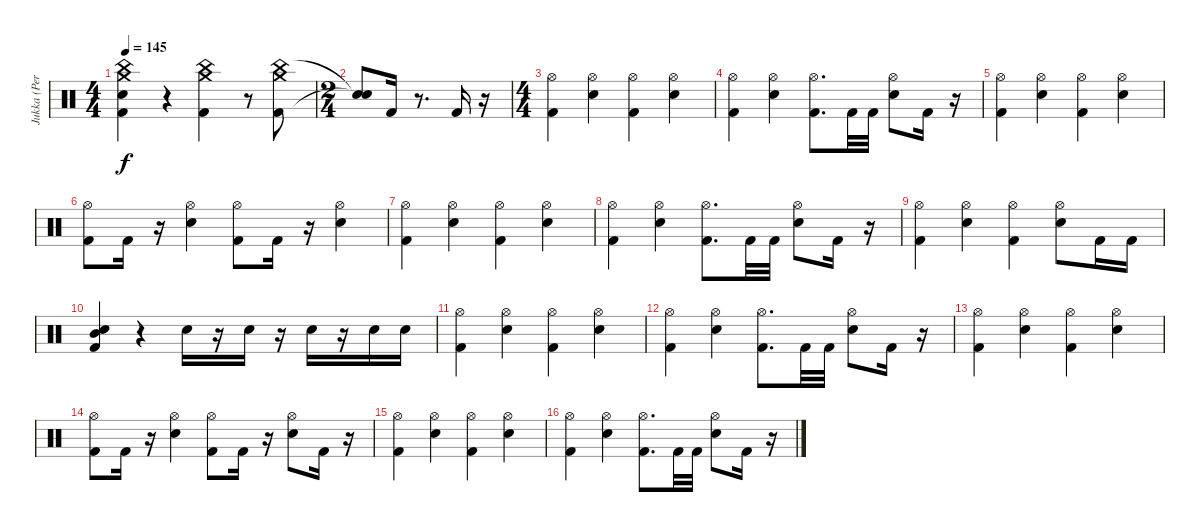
\track ("Jukka (Percussion)" "Jukka (Per") {instrument percussion}
\staff {score}
\articulation defaults
\ts (4 4)
\tempo 145
\clef neutral
\ks c
("Kick (hit) 2" "Electric Snare (hit)" "China (hit)" "Crash medium (hit)").4{dy f} r.4 ("Kick (hit) 2" "China (hit)" "Crash medium (hit)").4 r.8 ("Kick (hit) 2" "China (hit)" "Crash medium (hit)").8 |
\ts (2 4)
("Snare (hit)"{t} "Snare (hit)"{t}).8 "Kick (hit) 2".16 r.8{d} "Kick (hit) 2".16 r.16 |
\ts (4 4)
("Kick (hit) 2" "Hi-Hat (open)").4 ("Electric Snare (hit)" "Hi-Hat (open)").4 ("Kick (hit) 2" "Hi-Hat (open)").4 ("Electric Snare (hit)" "Hi-Hat (open)").4 |
("Kick (hit) 2" "Hi-Hat (open)").4 ("Electric Snare (hit)" "Hi-Hat (open)").4 ("Kick (hit) 2" "Hi-Hat (open)").8{d} "Kick (hit) 2".32 "Kick (hit) 2".32 ("Electric Snare (hit)" "Hi-Hat (open)").8 "Kick (hit) 2".16 r.16 |
("Kick (hit) 2" "Hi-Hat (open)").4 ("Electric Snare (hit)" "Hi-Hat (open)").4 ("Kick (hit) 2" "Hi-Hat (open)").4 ("Electric Snare (hit)" "Hi-Hat (open)").4 |
("Kick (hit) 2" "Hi-Hat (open)").8 "Kick (hit) 2".16 r.16 ("Electric Snare (hit)" "Hi-Hat (open)").4 ("Kick (hit) 2" "Hi-Hat (open)").8 "Kick (hit) 2".16 r.16 ("Electric Snare (hit)" "Hi-Hat (open)").4 |
("Kick (hit) 2" "Hi-Hat (open)").4 ("Electric Snare (hit)" "Hi-Hat (open)").4 ("Kick (hit) 2" "Hi-Hat (open)").4 ("Electric Snare (hit)" "Hi-Hat (open)").4 |
("Kick (hit) 2" "Hi-Hat (open)").4 ("Electric Snare (hit)" "Hi-Hat (open)").4 ("Kick (hit) 2" "Hi-Hat (open)").8{d} "Kick (hit) 2".32 "Kick (hit) 2".32 ("Electric Snare (hit)" "Hi-Hat (open)").8 "Kick (hit) 2".16 r.16 |
("Kick (hit) 2" "Hi-Hat (open)").4 ("Electric Snare (hit)" "Hi-Hat (open)").4 ("Kick (hit) 2" "Hi-Hat (open)").4 ("Electric Snare (hit)" "Hi-Hat (open)").8 "Kick (hit) 2".16 "Kick (hit) 2".16 |
("Kick (hit) 2" "Electric Snare (hit)" "Mid Tom (hit)").4 r.4 "Electric Snare (hit)".16 r.16 "Electric Snare (hit)".16 r.16 "Electric Snare (hit)".16 r.16 "Electric Snare (hit)".16 "Electric Snare (hit)".16 |
("Kick (hit) 2" "Hi-Hat (open)").4 ("Electric Snare (hit)" "Hi-Hat (open)").4 ("Kick (hit) 2" "Hi-Hat (open)").4 ("Electric Snare (hit)" "Hi-Hat (open)").4 |
("Kick (hit) 2" "Hi-Hat (open)").4 ("Electric Snare (hit)" "Hi-Hat (open)").4 ("Kick (hit) 2" "Hi-Hat (open)").8{d} "Kick (hit) 2".32 "Kick (hit) 2".32 ("Electric Snare (hit)" "Hi-Hat (open)").8 "Kick (hit) 2".16 r.16 |
("Kick (hit) 2" "Hi-Hat (open)").4 ("Electric Snare (hit)" "Hi-Hat (open)").4 ("Kick (hit) 2" "Hi-Hat (open)").4 ("Electric Snare (hit)" "Hi-Hat (open)").4 |
("Kick (hit) 2" "Hi-Hat (open)").8 "Kick (hit) 2".16 r.16 ("Electric Snare (hit)" "Hi-Hat (open)").4 ("Kick (hit) 2" "Hi-Hat (open)").8 "Kick (hit) 2".16 r.16 ("Electric Snare (hit)" "Hi-Hat (open)").8 "Kick (hit) 2".16 r.16 |
("Kick (hit) 2" "Hi-Hat (open)").4 ("Electric Snare (hit)" "Hi-Hat (open)").4 ("Kick (hit) 2" "Hi-Hat (open)").4 ("Electric Snare (hit)" "Hi-Hat (open)").4 |
("Kick (hit) 2" "Hi-Hat (open)").4 ("Electric Snare (hit)" "Hi-Hat (open)").4 ("Kick (hit) 2" "Hi-Hat (open)").8{d} "Kick (hit) 2".32 "Kick (hit) 2".32 ("Electric Snare (hit)" "Hi-Hat (open)").8 "Kick (hit) 2".16 r.16
